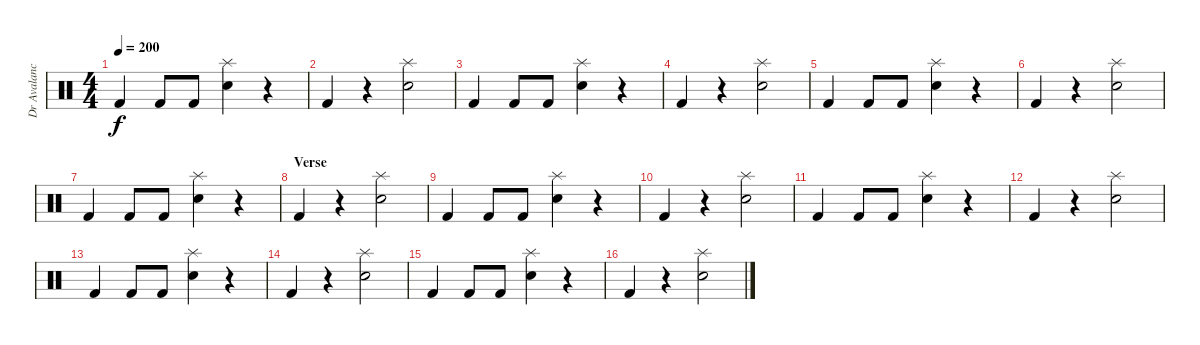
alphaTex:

\track ("Dr Avalanche" "Dr Avalanc") {instrument percussion}
\staff {score}
\articulation defaults
\ts (4 4)
\tempo 200
\clef neutral
\ks c "Kick (hit) 2".4{dy f} "Kick (hit) 2".8 "Kick (hit) 2".8
("Snare (hit) 2" "Splash (hit)").4 r.4 |
"Kick (hit) 2".4 r.4 ("Snare (hit) 2" "Splash (hit)").2 |
"Kick (hit) 2".4 "Kick (hit) 2".8 "Kick (hit) 2".8 ("Snare (hit) 2" "Splash (hit)").4 r.4 |
"Kick (hit) 2".4 r.4 ("Snare (hit) 2" "Splash (hit)").2 |
"Kick (hit) 2".4 "Kick (hit) 2".8 "Kick (hit) 2".8 ("Snare (hit) 2" "Splash (hit)").4 r.4 |
"Kick (hit) 2".4 r.4 ("Snare (hit) 2" "Splash (hit)").2 |
"Kick (hit) 2".4 "Kick (hit) 2".8 "Kick (hit) 2".8 ("Snare (hit) 2" "Splash (hit)").4 r.4 |
\section ("" "Verse")
"Kick (hit) 2".4 r.4 ("Snare (hit) 2" "Splash (hit)").2 |
"Kick (hit) 2".4 "Kick (hit) 2".8 "Kick (hit) 2".8 ("Snare (hit) 2" "Splash (hit)").4 r.4 |
"Kick (hit) 2".4 r.4 ("Snare (hit) 2" "Splash (hit)").2 |
"Kick (hit) 2".4 "Kick (hit) 2".8 "Kick (hit) 2".8 ("Snare (hit) 2" "Splash (hit)").4 r.4 |
"Kick (hit) 2".4 r.4 ("Snare (hit) 2" "Splash (hit)").2 |
"Kick (hit) 2".4 "Kick (hit) 2".8 "Kick (hit) 2".8 ("Snare (hit) 2" "Splash (hit)").4 r.4 |
"Kick (hit) 2".4 r.4 ("Snare (hit) 2" "Splash (hit)").2 |
"Kick (hit) 2".4 "Kick (hit) 2".8 "Kick (hit) 2".8 ("Snare (hit) 2" "Splash (hit)").4 r.4 |
"Kick (hit) 2".4 r.4 ("Snare (hit) 2" "Splash (hit)").2
